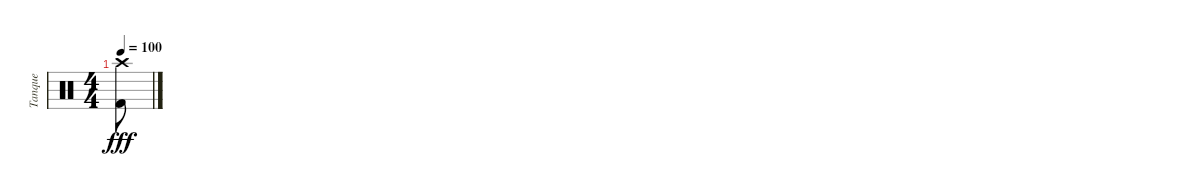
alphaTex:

\track ("Tanque" "Tanque") {instrument percussion}
\staff {score}
\articulation defaults
\ts (4 4)
\tempo 100
\clef neutral
\ks c
("Crash high (hit)" "Kick (hit) 2").8{dy fff}
